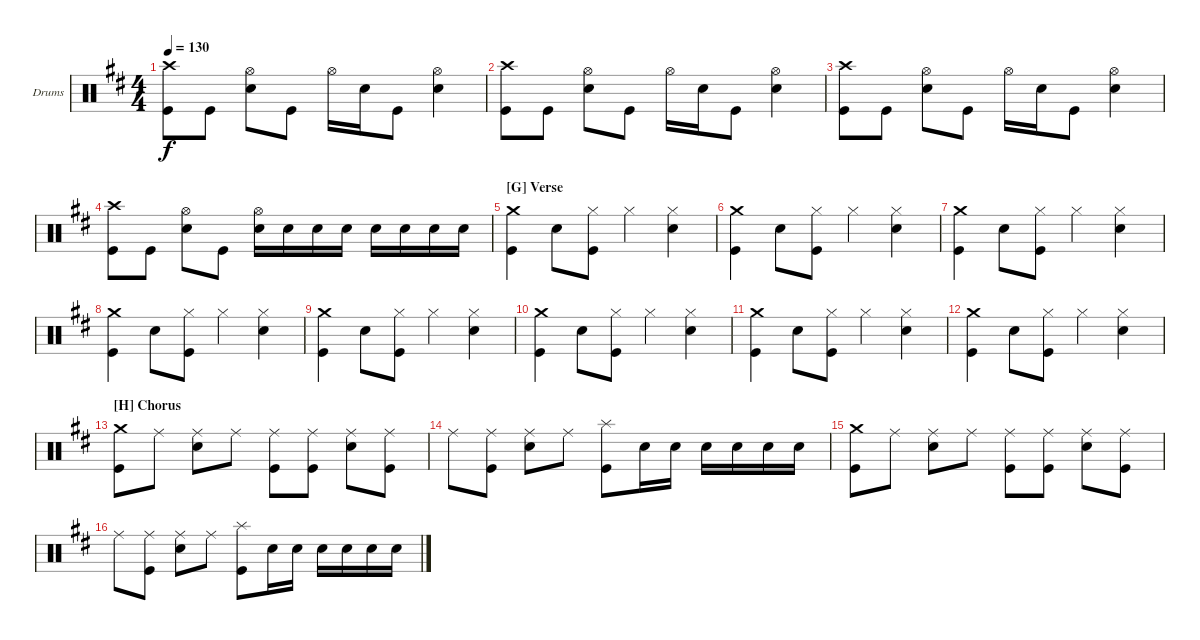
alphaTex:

\defaultSystemsLayout 4
\bracketExtendMode groupsimilarinstruments
\firstSystemTrackNameOrientation horizontal
\otherSystemsTrackNameOrientation horizontal
\track ("Drums" "Drums") {instrument percussion}
\staff {score}
\articulation defaults
\ts (4 4)
\tempo 130
\clef neutral
\scale
1.05044
\ks d
("Crash high (hit)" "Kick (hit)").8{dy f} "Kick (hit)".8 ("Hi-Hat (open)" "Snare (hit) 2").8 "Kick (hit)".8 "Hi-Hat (open)".16 "Snare (hit) 2".16 "Kick (hit)".8 ("Hi-Hat (open)" "Snare (hit) 2").4 |
\scale
0.949559 ("Crash high (hit)" "Kick (hit)").8 "Kick (hit)".8 ("Hi-Hat (open)" "Snare (hit) 2").8 "Kick (hit)".8 "Hi-Hat (open)".16 "Snare (hit) 2".16 "Kick (hit)".8 ("Hi-Hat (open)" "Snare (hit) 2").4 |
\scale
1.05044 ("Crash high (hit)" "Kick (hit)").8 "Kick (hit)".8 ("Hi-Hat (open)" "Snare (hit) 2").8 "Kick (hit)".8 "Hi-Hat (open)".16 "Snare (hit) 2".16 "Kick (hit)".8 ("Hi-Hat (open)" "Snare (hit) 2").4 |
\scale
0.949559 ("Crash high (hit)" "Kick (hit)").8 "Kick (hit)".8 ("Hi-Hat (open)" "Snare (hit) 2").8 "Kick (hit)".8 ("Hi-Hat (open)" "Snare (hit) 2").16 "Snare (hit) 2".16 "Snare (hit) 2".16 "Snare (hit) 2".16 "Snare (hit) 2".16 "Snare (hit) 2".16 "Snare (hit) 2".16 "Snare (hit) 2".16 |
\section ("G" "Verse")
\scale
1.05044 ("Crash medium (hit)" "Kick (hit)").4 "Snare (hit) 2".8 ("Hi-Hat (closed)" "Kick (hit)").8 "Hi-Hat (closed)".4 ("Hi-Hat (closed)" "Snare (hit) 2").4 |
\scale
0.949559 ("Crash medium (hit)" "Kick (hit)").4 "Snare (hit) 2".8 ("Hi-Hat (closed)" "Kick (hit)").8 "Hi-Hat (closed)".4 ("Hi-Hat (closed)" "Snare (hit) 2").4 |
\scale
1.05044 ("Crash medium (hit)" "Kick (hit)").4 "Snare (hit) 2".8 ("Hi-Hat (closed)" "Kick (hit)").8 "Hi-Hat (closed)".4 ("Hi-Hat (closed)" "Snare (hit) 2").4 |
\scale
0.949559 ("Crash medium (hit)" "Kick (hit)").4 "Snare (hit) 2".8 ("Hi-Hat (closed)" "Kick (hit)").8 "Hi-Hat (closed)".4 ("Hi-Hat (closed)" "Snare (hit) 2").4 |
\scale
1.05044 ("Crash medium (hit)" "Kick (hit)").4 "Snare (hit) 2".8 ("Hi-Hat (closed)" "Kick (hit)").8 "Hi-Hat (closed)".4 ("Hi-Hat (closed)" "Snare (hit) 2").4 |
\scale
0.949559 ("Crash medium (hit)" "Kick (hit)").4 "Snare (hit) 2".8 ("Hi-Hat (closed)" "Kick (hit)").8 "Hi-Hat (closed)".4 ("Hi-Hat (closed)" "Snare (hit) 2").4 |
\scale
1.05044 ("Crash medium (hit)" "Kick (hit)").4 "Snare (hit) 2".8 ("Hi-Hat (closed)" "Kick (hit)").8 "Hi-Hat (closed)".4 ("Hi-Hat (closed)" "Snare (hit) 2").4 |
\scale
0.949559 ("Crash medium (hit)" "Kick (hit)").4 "Snare (hit) 2".8 ("Hi-Hat (closed)" "Kick (hit)").8 "Hi-Hat (closed)".4 ("Hi-Hat (closed)" "Snare (hit) 2").4 |
\section ("H" "Chorus")
\scale
1.05044 ("Crash medium (hit)" "Kick (hit)").8 "Ride (middle)".8 ("Ride (middle)" "Snare (hit) 2").8 "Ride (middle)".8 ("Ride (middle)" "Kick (hit)").8 ("Ride (middle)" "Kick (hit)").8 ("Ride (middle)" "Snare (hit) 2").8 ("Ride (middle)" "Kick (hit)").8 |
\scale
0.949559 "Ride (middle)".8 ("Ride (middle)" "Kick (hit)").8 ("Ride (middle)" "Snare (hit) 2").8 "Ride (middle)".8 ("Splash (hit)" "Kick (hit)").8 "Snare (hit) 2".16 "Snare (hit) 2".16 "Snare (hit) 2".16 "Snare (hit) 2".16 "Snare (hit) 2".16 "Snare (hit) 2".16 |
\scale
1.05044 ("Crash medium (hit)" "Kick (hit)").8 "Ride (middle)".8 ("Ride (middle)" "Snare (hit) 2").8 "Ride (middle)".8 ("Ride (middle)" "Kick (hit)").8 ("Ride (middle)" "Kick (hit)").8 ("Ride (middle)" "Snare (hit) 2").8 ("Ride (middle)" "Kick (hit)").8 |
\scale
0.949559 "Ride (middle)".8 ("Ride (middle)" "Kick (hit)").8 ("Ride (middle)" "Snare (hit) 2").8 "Ride (middle)".8 ("Splash (hit)" "Kick (hit)").8 "Snare (hit) 2".16 "Snare (hit) 2".16 "Snare (hit) 2".16 "Snare (hit) 2".16 "Snare (hit) 2".16 "Snare (hit) 2".16
